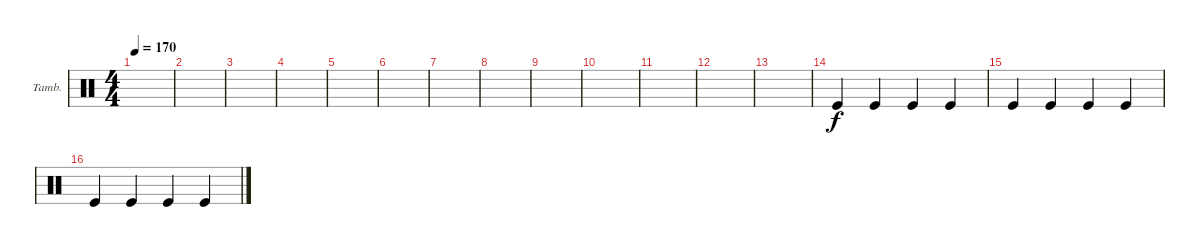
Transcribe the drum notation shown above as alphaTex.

\bracketExtendMode groupsimilarinstruments
\firstSystemTrackNameOrientation horizontal
\otherSystemsTrackNameOrientation horizontal
\track ("Tambourine" "Tamb.") {instrument percussion}
\staff {score}
\articulation defaults
\ts (4 4)
\tempo 170
\clef neutral
\scale
0.472222
\ks c
|
\scale
0.263889 |
\scale
0.263889 |
\scale
0.333333 |
\scale
0.333333 |
\scale
0.333333 |
\scale
0.333333 |
\scale
0.333333 |
\scale
0.333333 |
\scale
0.333333 |
\scale
0.333333 |
\scale
0.333333 |
\scale
0.333333 |
\scale
0.333333 "Kick (hit)".4 "Kick (hit)".4 "Kick (hit)".4 "Kick (hit)".4 |
\scale
0.333333 "Kick (hit)".4 "Kick (hit)".4 "Kick (hit)".4 "Kick (hit)".4 |
\scale
0.333333 "Kick (hit)".4 "Kick (hit)".4 "Kick (hit)".4 "Kick (hit)".4
